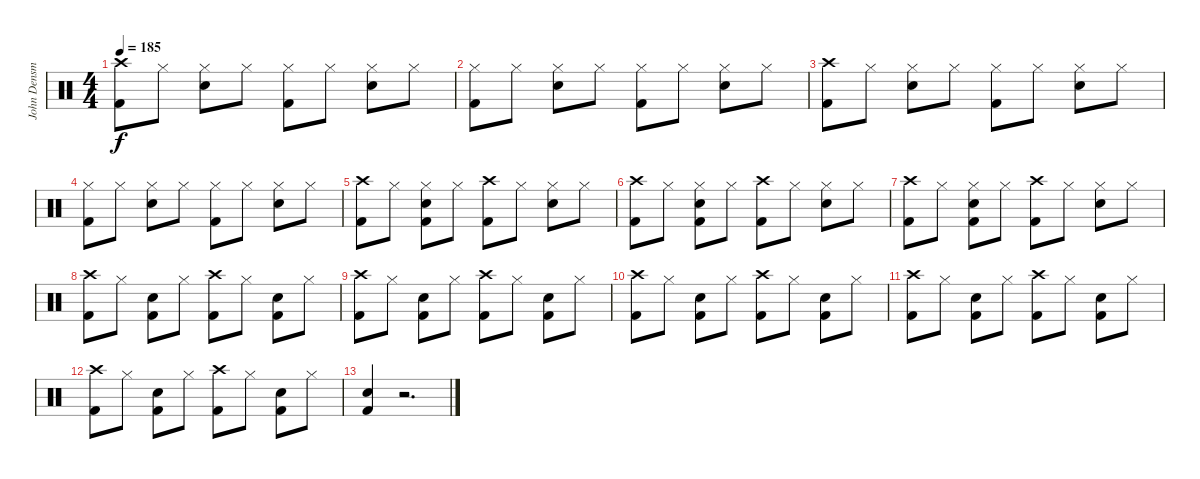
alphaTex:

\track ("John Densmore - Drums" "John Densm") {instrument percussion}
\staff {score}
\articulation defaults
\ts (4 4)
\tempo 185
\clef neutral
\ks c
("Crash high (hit)" "Kick (hit) 2").8{dy f} "Hi-Hat (closed)".8 ("Hi-Hat (closed)" "Snare (hit) 2").8 "Hi-Hat (closed)".8 ("Hi-Hat (closed)" "Kick (hit) 2").8 "Hi-Hat (closed)".8 ("Hi-Hat (closed)" "Snare (hit) 2").8 "Hi-Hat (closed)".8 |
("Hi-Hat (closed)" "Kick (hit) 2").8 "Hi-Hat (closed)".8 ("Hi-Hat (closed)" "Snare (hit) 2").8 "Hi-Hat (closed)".8 ("Hi-Hat (closed)" "Kick (hit) 2").8 "Hi-Hat (closed)".8 ("Hi-Hat (closed)" "Snare (hit) 2").8 "Hi-Hat (closed)".8 |
("Crash high (hit)" "Kick (hit) 2").8 "Hi-Hat (closed)".8 ("Hi-Hat (closed)" "Snare (hit) 2").8 "Hi-Hat (closed)".8 ("Hi-Hat (closed)" "Kick (hit) 2").8 "Hi-Hat (closed)".8 ("Hi-Hat (closed)" "Snare (hit) 2").8 "Hi-Hat (closed)".8 |
("Hi-Hat (closed)" "Kick (hit) 2").8 "Hi-Hat (closed)".8 ("Hi-Hat (closed)" "Snare (hit) 2").8 "Hi-Hat (closed)".8 ("Hi-Hat (closed)" "Kick (hit) 2").8 "Hi-Hat (closed)".8 ("Hi-Hat (closed)" "Snare (hit) 2").8 "Hi-Hat (closed)".8 |
("Crash high (hit)" "Kick (hit) 2").8 "Hi-Hat (closed)".8 ("Hi-Hat (closed)" "Snare (hit) 2" "Kick (hit) 2").8 "Hi-Hat (closed)".8 ("Crash high (hit)" "Kick (hit) 2").8 "Hi-Hat (closed)".8 ("Hi-Hat (closed)" "Snare (hit) 2").8 "Hi-Hat (closed)".8 |
("Crash high (hit)" "Kick (hit) 2").8 "Hi-Hat (closed)".8 ("Hi-Hat (closed)" "Snare (hit) 2" "Kick (hit) 2").8 "Hi-Hat (closed)".8 ("Crash high (hit)" "Kick (hit) 2").8 "Hi-Hat (closed)".8 ("Hi-Hat (closed)" "Snare (hit) 2").8 "Hi-Hat (closed)".8 |
("Crash high (hit)" "Kick (hit) 2").8 "Hi-Hat (closed)".8 ("Hi-Hat (closed)" "Snare (hit) 2" "Kick (hit) 2").8 "Hi-Hat (closed)".8 ("Crash high (hit)" "Kick (hit) 2").8 "Hi-Hat (closed)".8 ("Hi-Hat (closed)" "Snare (hit) 2").8 "Hi-Hat (closed)".8 |
("Crash high (hit)" "Kick (hit) 2").8 "Hi-Hat (closed)".8 ("Snare (hit) 2" "Kick (hit) 2").8 "Hi-Hat (closed)".8 ("Crash high (hit)" "Kick (hit) 2").8 "Hi-Hat (closed)".8 ("Snare (hit) 2" "Kick (hit) 2").8 "Hi-Hat (closed)".8 |
("Crash high (hit)" "Kick (hit) 2").8 "Hi-Hat (closed)".8 ("Snare (hit) 2" "Kick (hit) 2").8 "Hi-Hat (closed)".8 ("Crash high (hit)" "Kick (hit) 2").8 "Hi-Hat (closed)".8 ("Snare (hit) 2" "Kick (hit) 2").8 "Hi-Hat (closed)".8 |
("Crash high (hit)" "Kick (hit) 2").8 "Hi-Hat (closed)".8 ("Snare (hit) 2" "Kick (hit) 2").8 "Hi-Hat (closed)".8 ("Crash high (hit)" "Kick (hit) 2").8 "Hi-Hat (closed)".8 ("Snare (hit) 2" "Kick (hit) 2").8 "Hi-Hat (closed)".8 |
("Crash high (hit)" "Kick (hit) 2").8 "Hi-Hat (closed)".8 ("Snare (hit) 2" "Kick (hit) 2").8 "Hi-Hat (closed)".8 ("Crash high (hit)" "Kick (hit) 2").8 "Hi-Hat (closed)".8 ("Snare (hit) 2" "Kick (hit) 2").8 "Hi-Hat (closed)".8 |
("Crash high (hit)" "Kick (hit) 2").8 "Hi-Hat (closed)".8 ("Snare (hit) 2" "Kick (hit) 2").8 "Hi-Hat (closed)".8 ("Crash high (hit)" "Kick (hit) 2").8 "Hi-Hat (closed)".8 ("Snare (hit) 2" "Kick (hit) 2").8 "Hi-Hat (closed)".8 |
("Snare (hit) 2" "Kick (hit) 2").4 r.2{d}
